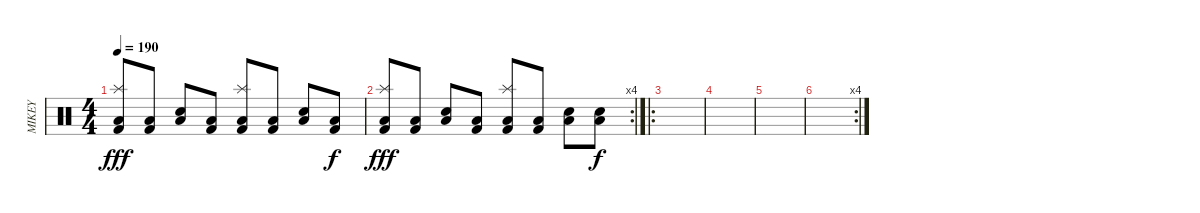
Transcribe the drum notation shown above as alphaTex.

\track ("MIKEY" "MIKEY") {instrument percussion}
\staff {score}
\articulation defaults
\ts (4 4)
\tempo 190
\clef neutral
\ks c
("Low Floor Tom (hit)" "Splash (hit)" "Kick (hit) 2").8{dy fff} ("Low Floor Tom (hit)" "Kick (hit) 2").8 ("Low Floor Tom (hit)" "Snare (hit) 2").8 ("Low Floor Tom (hit)" "Kick (hit) 2").8 ("Low Floor Tom (hit)" "Splash (hit)" "Kick (hit) 2").8 ("Low Floor Tom (hit)" "Kick (hit) 2").8 ("Low Floor Tom (hit)" "Snare (hit) 2").8 ("Low Floor Tom (hit)" "Kick (hit) 2").8{dy f} |
\rc 4
("Low Floor Tom (hit)" "Splash (hit)" "Kick (hit) 2").8{dy fff} ("Low Floor Tom (hit)" "Kick (hit) 2").8 ("Low Floor Tom (hit)" "Snare (hit) 2").8 ("Low Floor Tom (hit)" "Kick (hit) 2").8 ("Low Floor Tom (hit)" "Splash (hit)" "Kick (hit) 2").8 ("Low Floor Tom (hit)" "Kick (hit) 2").8 ("Low Floor Tom (hit)" "Snare (hit) 2").8 ("Low Floor Tom (hit)" "Snare (hit) 2").8{dy f} |
\ro
|
|
|
\rc 4
